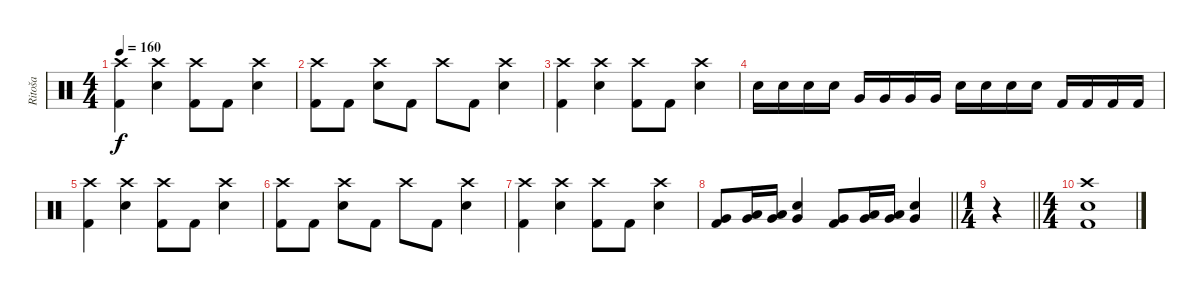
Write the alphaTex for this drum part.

\track ("Ritoša" "Ritoša") {instrument percussion}
\staff {score}
\articulation defaults
\ts (4 4)
\tempo 160
\clef neutral
\ks c
("Crash high (hit)" "Kick (hit) 2").4{dy f} ("Crash high (hit)" "Electric Snare (hit)").4 ("Crash high (hit)" "Kick (hit) 2").8 "Kick (hit) 2".8 ("Crash high (hit)" "Electric Snare (hit)").4 |
("Crash high (hit)" "Kick (hit) 2").8 "Kick (hit) 2".8 ("Crash high (hit)" "Electric Snare (hit)").8 "Kick (hit) 2".8 "Crash high (hit)".8 "Kick (hit) 2".8 ("Crash high (hit)" "Electric Snare (hit)").4 |
("Crash high (hit)" "Kick (hit) 2").4 ("Crash high (hit)" "Electric Snare (hit)").4 ("Crash high (hit)" "Kick (hit) 2").8 "Kick (hit) 2".8 ("Crash high (hit)" "Electric Snare (hit)").4 |
"Electric Snare (hit)".16 "Electric Snare (hit)".16 "Electric Snare (hit)".16 "Electric Snare (hit)".16 "Very Low Tom (hit)".16 "Very Low Tom (hit)".16 "Very Low Tom (hit)".16 "Very Low Tom (hit)".16 "Electric Snare (hit)".16 "Electric Snare (hit)".16 "Electric Snare (hit)".16 "Electric Snare (hit)".16 "Kick (hit) 2".16 "Kick (hit) 2".16 "Kick (hit) 2".16 "Kick (hit) 2".16 |
("Crash high (hit)" "Kick (hit) 2").4 ("Crash high (hit)" "Electric Snare (hit)").4 ("Crash high (hit)" "Kick (hit) 2").8 "Kick (hit) 2".8 ("Crash high (hit)" "Electric Snare (hit)").4 |
("Crash high (hit)" "Kick (hit) 2").8 "Kick (hit) 2".8 ("Crash high (hit)" "Electric Snare (hit)").8 "Kick (hit) 2".8 "Crash high (hit)".8 "Kick (hit) 2".8 ("Crash high (hit)" "Electric Snare (hit)").4 |
("Crash high (hit)" "Kick (hit) 2").4 ("Crash high (hit)" "Electric Snare (hit)").4 ("Crash high (hit)" "Kick (hit) 2").8 "Kick (hit) 2".8 ("Crash high (hit)" "Electric Snare (hit)").4 |
\barLineRight lightlight
("Very Low Tom (hit)" "Kick (hit) 2").8 ("Low Floor Tom (hit)" "Very Low Tom (hit)").16 ("Low Floor Tom (hit)" "Very Low Tom (hit)").16 ("Very Low Tom (hit)" "Electric Snare (hit)").4 ("Very Low Tom (hit)" "Kick (hit) 2").8 ("Low Floor Tom (hit)" "Very Low Tom (hit)").16 ("Low Floor Tom (hit)" "Very Low Tom (hit)").16 ("Very Low Tom (hit)" "Electric Snare (hit)").4 |
\ts (1 4)
\barLineRight lightlight
r.4 |
\ts (4 4)
("Crash high (hit)" "Electric Snare (hit)" "Kick (hit) 2").1
